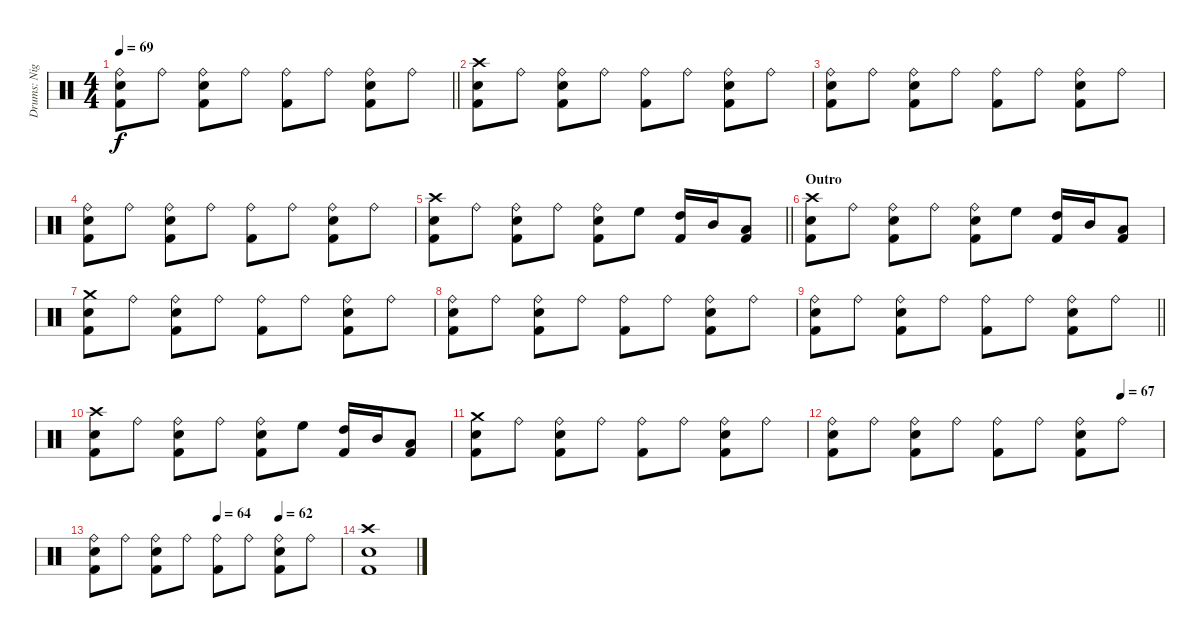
\track ("Drums: Nigel Olsson" "Drums: Nig") {instrument percussion}
\staff {score}
\articulation defaults
\ts (4 4)
\tempo 69
\clef neutral
\barLineRight lightlight
\ks c
("Ride (bell)" "Snare (hit) 2" "Kick (hit) 2").8{dy f} "Ride (bell)".8 ("Ride (bell)" "Snare (hit) 2" "Kick (hit) 2").8 "Ride (bell)".8 ("Ride (bell)" "Kick (hit) 2").8 "Ride (bell)".8 ("Ride (bell)" "Snare (hit) 2" "Kick (hit) 2").8 "Ride (bell)".8 |
("Crash high (hit)" "Snare (hit) 2" "Kick (hit) 2").8 "Ride (bell)".8 ("Ride (bell)" "Snare (hit) 2" "Kick (hit) 2").8 "Ride (bell)".8 ("Ride (bell)" "Kick (hit) 2").8 "Ride (bell)".8 ("Ride (bell)" "Snare (hit) 2" "Kick (hit) 2").8 "Ride (bell)".8 |
("Ride (bell)" "Snare (hit) 2" "Kick (hit) 2").8 "Ride (bell)".8 ("Ride (bell)" "Snare (hit) 2" "Kick (hit) 2").8 "Ride (bell)".8 ("Ride (bell)" "Kick (hit) 2").8 "Ride (bell)".8 ("Ride (bell)" "Snare (hit) 2" "Kick (hit) 2").8 "Ride (bell)".8 |
("Ride (bell)" "Snare (hit) 2" "Kick (hit) 2").8 "Ride (bell)".8 ("Ride (bell)" "Snare (hit) 2" "Kick (hit) 2").8 "Ride (bell)".8 ("Ride (bell)" "Kick (hit) 2").8 "Ride (bell)".8 ("Ride (bell)" "Snare (hit) 2" "Kick (hit) 2").8 "Ride (bell)".8 |
\barLineRight lightlight
("Crash high (hit)" "Snare (hit) 2" "Kick (hit) 2").8 "Ride (bell)".8 ("Ride (bell)" "Snare (hit) 2" "Kick (hit) 2").8 "Ride (bell)".8 ("Ride (bell)" "Snare (hit) 2" "Kick (hit) 2").8 "High Floor Tom (hit)".8 ("High Tom (hit)" "Kick (hit) 2").16 "Mid Tom (hit)".16 ("Low Tom (hit)" "Kick (hit) 2").8 |
\section ("" "Outro")
("Crash high (hit)" "Snare (hit) 2" "Kick (hit) 2").8 "Ride (bell)".8 ("Ride (bell)" "Snare (hit) 2" "Kick (hit) 2").8 "Ride (bell)".8 ("Ride (bell)" "Snare (hit) 2" "Kick (hit) 2").8 "High Floor Tom (hit)".8 ("High Tom (hit)" "Kick (hit) 2").16 "Mid Tom (hit)".16 ("Low Tom (hit)" "Kick (hit) 2").8 |
("Crash medium (hit)" "Snare (hit) 2" "Kick (hit) 2").8 "Ride (bell)".8 ("Ride (bell)" "Snare (hit) 2" "Kick (hit) 2").8 "Ride (bell)".8 ("Ride (bell)" "Kick (hit) 2").8 "Ride (bell)".8 ("Ride (bell)" "Snare (hit) 2" "Kick (hit) 2").8 "Ride (bell)".8 |
("Ride (bell)" "Snare (hit) 2" "Kick (hit) 2").8 "Ride (bell)".8 ("Ride (bell)" "Snare (hit) 2" "Kick (hit) 2").8 "Ride (bell)".8 ("Ride (bell)" "Kick (hit) 2").8 "Ride (bell)".8 ("Ride (bell)" "Snare (hit) 2" "Kick (hit) 2").8 "Ride (bell)".8 |
\barLineRight lightlight
("Ride (bell)" "Snare (hit) 2" "Kick (hit) 2").8 "Ride (bell)".8 ("Ride (bell)" "Snare (hit) 2" "Kick (hit) 2").8 "Ride (bell)".8 ("Ride (bell)" "Kick (hit) 2").8 "Ride (bell)".8 ("Ride (bell)" "Snare (hit) 2" "Kick (hit) 2").8 "Ride (bell)".8 |
("Crash high (hit)" "Snare (hit) 2" "Kick (hit) 2").8 "Ride (bell)".8 ("Ride (bell)" "Snare (hit) 2" "Kick (hit) 2").8 "Ride (bell)".8 ("Ride (bell)" "Snare (hit) 2" "Kick (hit) 2").8 "High Floor Tom (hit)".8 ("High Tom (hit)" "Kick (hit) 2").16 "Mid Tom (hit)".16 ("Low Tom (hit)" "Kick (hit) 2").8 |
("Crash medium (hit)" "Snare (hit) 2" "Kick (hit) 2").8 "Ride (bell)".8 ("Ride (bell)" "Snare (hit) 2" "Kick (hit) 2").8 "Ride (bell)".8 ("Ride (bell)" "Kick (hit) 2").8 "Ride (bell)".8 ("Ride (bell)" "Snare (hit) 2" "Kick (hit) 2").8 "Ride (bell)".8 |
\tempo (67 0.875)
("Ride (bell)" "Snare (hit) 2" "Kick (hit) 2").8 "Ride (bell)".8 ("Ride (bell)" "Snare (hit) 2" "Kick (hit) 2").8 "Ride (bell)".8 ("Ride (bell)" "Kick (hit) 2").8 "Ride (bell)".8 ("Ride (bell)" "Snare (hit) 2" "Kick (hit) 2").8 "Ride (bell)".8 |
\tempo (64 0.5)
\tempo (62 0.75)
("Ride (bell)" "Snare (hit) 2" "Kick (hit) 2").8 "Ride (bell)".8 ("Ride (bell)" "Snare (hit) 2" "Kick (hit) 2").8 "Ride (bell)".8 ("Ride (bell)" "Kick (hit) 2").8 "Ride (bell)".8 ("Ride (bell)" "Snare (hit) 2" "Kick (hit) 2").8 "Ride (bell)".8 |
("Crash high (hit)" "Snare (hit) 2" "Kick (hit) 2").1
